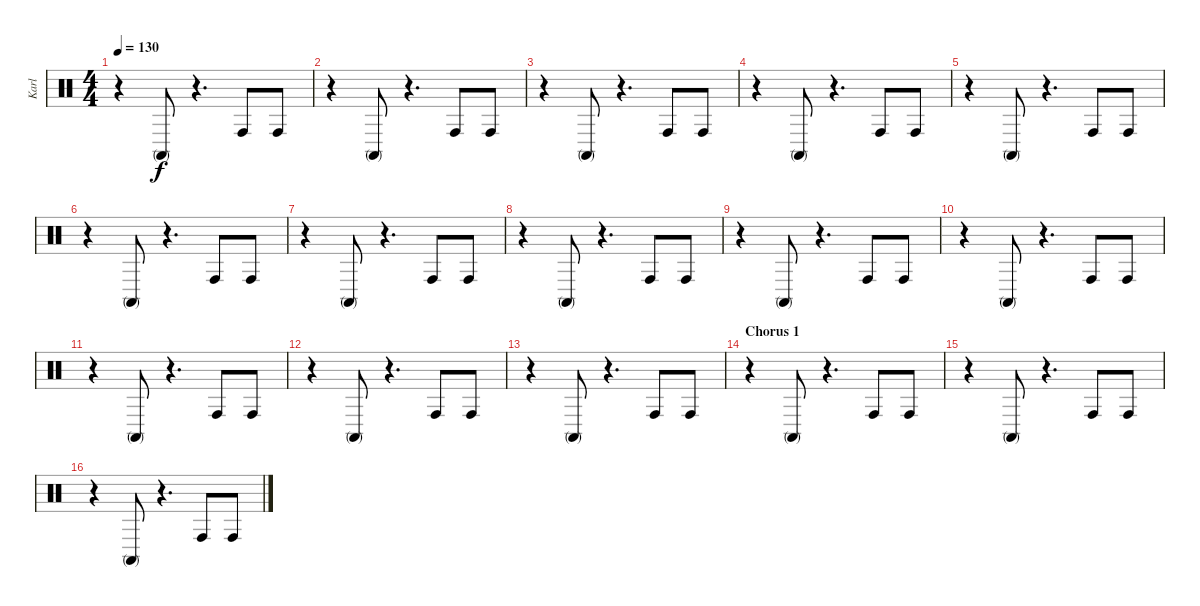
\track ("Karl" "Karl") {instrument percussion}
\staff {score}
\articulation defaults
\ts (4 4)
\tempo 130
\clef neutral
\ks c
r.4{dy f} "Conga high (mute)".8 r.4{d} "Conga high (hit)".8 "Conga high (hit)".8 |
r.4 "Conga high (mute)".8 r.4{d} "Conga high (hit)".8 "Conga high (hit)".8 |
r.4 "Conga high (mute)".8 r.4{d} "Conga high (hit)".8 "Conga high (hit)".8 |
r.4 "Conga high (mute)".8 r.4{d} "Conga high (hit)".8 "Conga high (hit)".8 |
r.4 "Conga high (mute)".8 r.4{d} "Conga high (hit)".8 "Conga high (hit)".8 |
r.4 "Conga high (mute)".8 r.4{d} "Conga high (hit)".8 "Conga high (hit)".8 |
r.4 "Conga high (mute)".8 r.4{d} "Conga high (hit)".8 "Conga high (hit)".8 |
r.4 "Conga high (mute)".8 r.4{d} "Conga high (hit)".8 "Conga high (hit)".8 |
r.4 "Conga high (mute)".8 r.4{d} "Conga high (hit)".8 "Conga high (hit)".8 |
r.4 "Conga high (mute)".8 r.4{d} "Conga high (hit)".8 "Conga high (hit)".8 |
r.4 "Conga high (mute)".8 r.4{d} "Conga high (hit)".8 "Conga high (hit)".8 |
r.4 "Conga high (mute)".8 r.4{d} "Conga high (hit)".8 "Conga high (hit)".8 |
r.4 "Conga high (mute)".8 r.4{d} "Conga high (hit)".8 "Conga high (hit)".8 |
\section ("" "Chorus 1")
r.4 "Conga high (mute)".8 r.4{d} "Conga high (hit)".8 "Conga high (hit)".8 |
r.4 "Conga high (mute)".8 r.4{d} "Conga high (hit)".8 "Conga high (hit)".8 |
r.4 "Conga high (mute)".8 r.4{d} "Conga high (hit)".8 "Conga high (hit)".8
